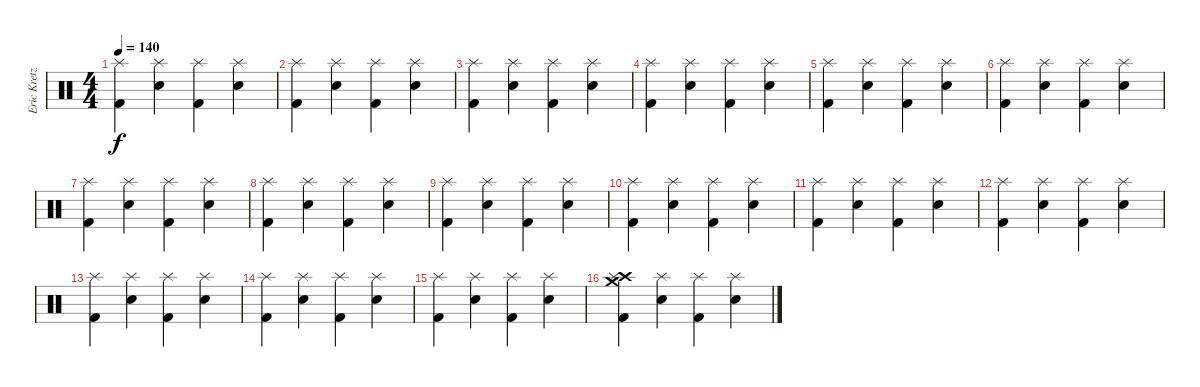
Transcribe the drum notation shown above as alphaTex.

\track ("Eric Kretz" "Eric Kretz") {instrument percussion}
\staff {score}
\articulation defaults
\ts (4 4)
\tempo 140
\clef neutral
\ks c
("Kick (hit) 2" "Splash (hit)").4{dy f} ("Snare (hit) 2" "Splash (hit)").4 ("Kick (hit) 2" "Splash (hit)").4 ("Snare (hit) 2" "Splash (hit)").4 |
("Kick (hit) 2" "Splash (hit)").4 ("Snare (hit) 2" "Splash (hit)").4 ("Kick (hit) 2" "Splash (hit)").4 ("Snare (hit) 2" "Splash (hit)").4 |
("Kick (hit) 2" "Splash (hit)").4 ("Snare (hit) 2" "Splash (hit)").4 ("Kick (hit) 2" "Splash (hit)").4 ("Snare (hit) 2" "Splash (hit)").4 |
("Kick (hit) 2" "Splash (hit)").4 ("Snare (hit) 2" "Splash (hit)").4 ("Kick (hit) 2" "Splash (hit)").4 ("Snare (hit) 2" "Splash (hit)").4 |
("Kick (hit) 2" "Splash (hit)").4 ("Snare (hit) 2" "Splash (hit)").4 ("Kick (hit) 2" "Splash (hit)").4 ("Snare (hit) 2" "Splash (hit)").4 |
("Kick (hit) 2" "Splash (hit)").4 ("Snare (hit) 2" "Splash (hit)").4 ("Kick (hit) 2" "Splash (hit)").4 ("Snare (hit) 2" "Splash (hit)").4 |
("Kick (hit) 2" "Splash (hit)").4 ("Snare (hit) 2" "Splash (hit)").4 ("Kick (hit) 2" "Splash (hit)").4 ("Snare (hit) 2" "Splash (hit)").4 |
("Kick (hit) 2" "Splash (hit)").4 ("Snare (hit) 2" "Splash (hit)").4 ("Kick (hit) 2" "Splash (hit)").4 ("Snare (hit) 2" "Splash (hit)").4 |
("Kick (hit) 2" "Splash (hit)").4 ("Snare (hit) 2" "Splash (hit)").4 ("Kick (hit) 2" "Splash (hit)").4 ("Snare (hit) 2" "Splash (hit)").4 |
("Kick (hit) 2" "Splash (hit)").4 ("Snare (hit) 2" "Splash (hit)").4 ("Kick (hit) 2" "Splash (hit)").4 ("Snare (hit) 2" "Splash (hit)").4 |
("Kick (hit) 2" "Splash (hit)").4 ("Snare (hit) 2" "Splash (hit)").4 ("Kick (hit) 2" "Splash (hit)").4 ("Snare (hit) 2" "Splash (hit)").4 |
("Kick (hit) 2" "Splash (hit)").4 ("Snare (hit) 2" "Splash (hit)").4 ("Kick (hit) 2" "Splash (hit)").4 ("Snare (hit) 2" "Splash (hit)").4 |
("Kick (hit) 2" "Splash (hit)").4 ("Snare (hit) 2" "Splash (hit)").4 ("Kick (hit) 2" "Splash (hit)").4 ("Snare (hit) 2" "Splash (hit)").4 |
("Kick (hit) 2" "Splash (hit)").4 ("Snare (hit) 2" "Splash (hit)").4 ("Kick (hit) 2" "Splash (hit)").4 ("Snare (hit) 2" "Splash (hit)").4 |
("Kick (hit) 2" "Splash (hit)").4 ("Snare (hit) 2" "Splash (hit)").4 ("Kick (hit) 2" "Splash (hit)").4 ("Snare (hit) 2" "Splash (hit)").4 |
("Crash high (hit)" "Splash (hit)" "Crash medium (hit)" "Kick (hit) 2").4 ("Snare (hit) 2" "Splash (hit)").4 ("Kick (hit) 2" "Splash (hit)").4 ("Snare (hit) 2" "Splash (hit)").4
